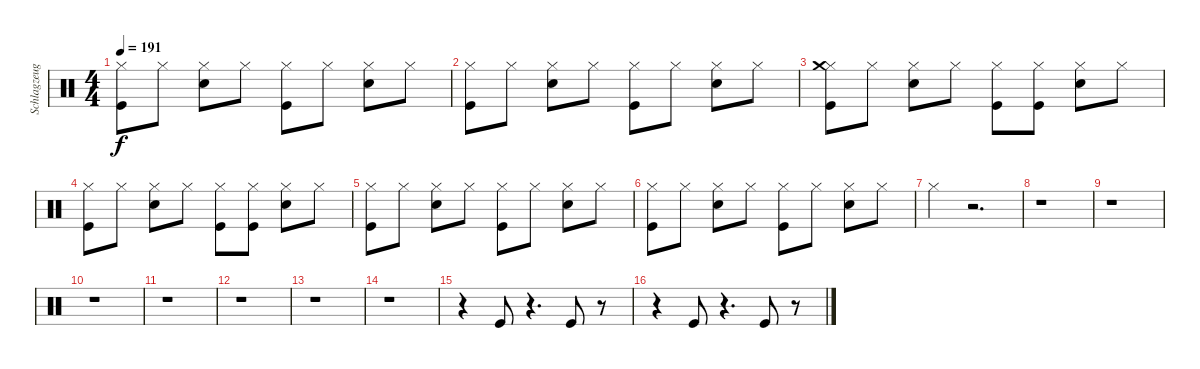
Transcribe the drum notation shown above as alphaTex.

\track ("Schlagzeug - Bela B." "Schlagzeug") {instrument percussion}
\staff {score}
\articulation defaults
\ts (4 4)
\tempo 191
\clef neutral
\ks c
("Kick (hit)" "Hi-Hat (closed)").8{dy f} "Hi-Hat (closed)".8 ("Hi-Hat (closed)" "Electric Snare (hit)").8 "Hi-Hat (closed)".8 ("Hi-Hat (closed)" "Kick (hit)").8 "Hi-Hat (closed)".8 ("Hi-Hat (closed)" "Electric Snare (hit)").8 "Hi-Hat (closed)".8 |
("Kick (hit)" "Hi-Hat (closed)").8 "Hi-Hat (closed)".8 ("Hi-Hat (closed)" "Electric Snare (hit)").8 "Hi-Hat (closed)".8 ("Hi-Hat (closed)" "Kick (hit)").8 "Hi-Hat (closed)".8 ("Hi-Hat (closed)" "Electric Snare (hit)").8 "Hi-Hat (closed)".8 |
("Kick (hit)" "Hi-Hat (closed)" "Crash medium (hit)").8 "Hi-Hat (closed)".8 ("Hi-Hat (closed)" "Electric Snare (hit)").8 "Hi-Hat (closed)".8 ("Hi-Hat (closed)" "Kick (hit)").8 ("Hi-Hat (closed)" "Kick (hit)").8 ("Hi-Hat (closed)" "Electric Snare (hit)").8 "Hi-Hat (closed)".8 |
("Kick (hit)" "Hi-Hat (closed)").8 "Hi-Hat (closed)".8 ("Hi-Hat (closed)" "Electric Snare (hit)").8 "Hi-Hat (closed)".8 ("Hi-Hat (closed)" "Kick (hit)").8 ("Hi-Hat (closed)" "Kick (hit)").8 ("Hi-Hat (closed)" "Electric Snare (hit)").8 "Hi-Hat (closed)".8 |
("Kick (hit)" "Hi-Hat (closed)").8 "Hi-Hat (closed)".8 ("Hi-Hat (closed)" "Electric Snare (hit)").8 "Hi-Hat (closed)".8 ("Hi-Hat (closed)" "Kick (hit)").8 "Hi-Hat (closed)".8 ("Hi-Hat (closed)" "Electric Snare (hit)").8 "Hi-Hat (closed)".8 |
("Kick (hit)" "Hi-Hat (closed)").8 "Hi-Hat (closed)".8 ("Hi-Hat (closed)" "Electric Snare (hit)").8 "Hi-Hat (closed)".8 ("Hi-Hat (closed)" "Kick (hit)").8 "Hi-Hat (closed)".8 ("Hi-Hat (closed)" "Electric Snare (hit)").8 "Hi-Hat (closed)".8 |
"Hi-Hat (closed)".4 r.2{d} |
r.1 |
r.1 |
r.1 |
r.1 |
r.1 |
r.1 |
r.1 |
r.4 "Kick (hit)".8 r.4{d} "Kick (hit)".8 r.8 |
r.4 "Kick (hit)".8 r.4{d} "Kick (hit)".8 r.8
